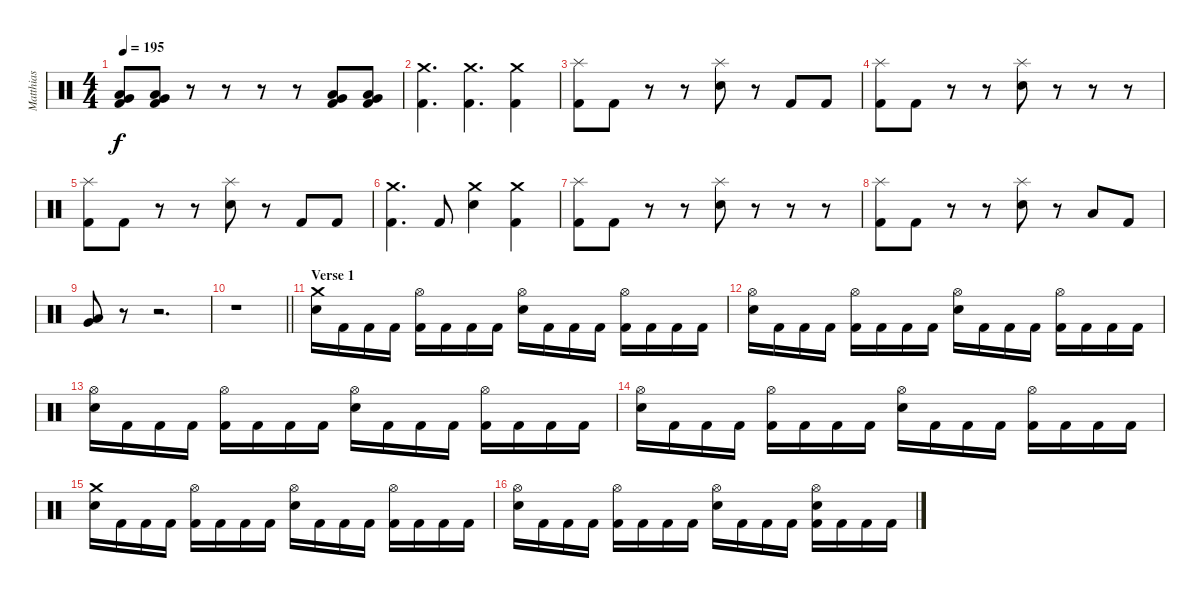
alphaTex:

\track ("Matthias" "Matthias") {instrument percussion}
\staff {score}
\articulation defaults
\ts (4 4)
\tempo 195
\clef neutral
\ks c
("Low Tom (hit)" "Very Low Tom (hit)" "Kick (hit) 2").8{dy f} ("Low Tom (hit)" "Very Low Tom (hit)" "Kick (hit) 2").8 r.8 r.8 r.8 r.8 ("Low Tom (hit)" "Very Low Tom (hit)" "Kick (hit) 2").8 ("Low Tom (hit)" "Very Low Tom (hit)" "Kick (hit) 2").8 |
("Crash medium (hit)" "Kick (hit) 2").4{d} ("Crash medium (hit)" "Kick (hit) 2").4{d} ("Crash medium (hit)" "Kick (hit) 2").4 |
("Splash (hit)" "Kick (hit) 2").8 "Kick (hit) 2".8 r.8 r.8 ("Splash (hit)" "Electric Snare (hit)").8 r.8 "Kick (hit) 2".8 "Kick (hit) 2".8 |
("Splash (hit)" "Kick (hit) 2").8 "Kick (hit) 2".8 r.8 r.8 ("Splash (hit)" "Electric Snare (hit)").8 r.8 r.8 r.8 |
("Splash (hit)" "Kick (hit) 2").8 "Kick (hit) 2".8 r.8 r.8 ("Splash (hit)" "Electric Snare (hit)").8 r.8 "Kick (hit) 2".8 "Kick (hit) 2".8 |
("Crash medium (hit)" "Kick (hit) 2").4{d} "Kick (hit) 2".8 ("Crash medium (hit)" "Electric Snare (hit)").4 ("Crash medium (hit)" "Kick (hit) 2").4 |
("Splash (hit)" "Kick (hit) 2").8 "Kick (hit) 2".8 r.8 r.8 ("Splash (hit)" "Electric Snare (hit)").8 r.8 r.8 r.8 |
("Splash (hit)" "Kick (hit) 2").8 "Kick (hit) 2".8 r.8 r.8 ("Splash (hit)" "Electric Snare (hit)").8 r.8 "Low Tom (hit)".8 "Kick (hit) 2".8 |
("Very Low Tom (hit)" "Low Tom (hit)").8 r.8 r.2{d} |
\barLineRight lightlight
r.1 |
\section ("" "Verse 1")
("Crash medium (hit)" "Electric Snare (hit)").16 "Kick (hit) 2".16 "Kick (hit) 2".16 "Kick (hit) 2".16 ("Hi-Hat (open)" "Kick (hit) 2").16 "Kick (hit) 2".16 "Kick (hit) 2".16 "Kick (hit) 2".16 ("Hi-Hat (open)" "Electric Snare (hit)").16 "Kick (hit) 2".16 "Kick (hit) 2".16 "Kick (hit) 2".16 ("Hi-Hat (open)" "Kick (hit) 2").16 "Kick (hit) 2".16 "Kick (hit) 2".16 "Kick (hit) 2".16 |
("Hi-Hat (open)" "Electric Snare (hit)").16 "Kick (hit) 2".16 "Kick (hit) 2".16 "Kick (hit) 2".16 ("Hi-Hat (open)" "Kick (hit) 2").16 "Kick (hit) 2".16 "Kick (hit) 2".16 "Kick (hit) 2".16 ("Hi-Hat (open)" "Electric Snare (hit)").16 "Kick (hit) 2".16 "Kick (hit) 2".16 "Kick (hit) 2".16 ("Hi-Hat (open)" "Kick (hit) 2").16 "Kick (hit) 2".16 "Kick (hit) 2".16 "Kick (hit) 2".16 |
("Hi-Hat (open)" "Electric Snare (hit)").16 "Kick (hit) 2".16 "Kick (hit) 2".16 "Kick (hit) 2".16 ("Hi-Hat (open)" "Kick (hit) 2").16 "Kick (hit) 2".16 "Kick (hit) 2".16 "Kick (hit) 2".16 ("Hi-Hat (open)" "Electric Snare (hit)").16 "Kick (hit) 2".16 "Kick (hit) 2".16 "Kick (hit) 2".16 ("Hi-Hat (open)" "Kick (hit) 2").16 "Kick (hit) 2".16 "Kick (hit) 2".16 "Kick (hit) 2".16 |
("Hi-Hat (open)" "Electric Snare (hit)").16 "Kick (hit) 2".16 "Kick (hit) 2".16 "Kick (hit) 2".16 ("Hi-Hat (open)" "Kick (hit) 2").16 "Kick (hit) 2".16 "Kick (hit) 2".16 "Kick (hit) 2".16 ("Hi-Hat (open)" "Electric Snare (hit)").16 "Kick (hit) 2".16 "Kick (hit) 2".16 "Kick (hit) 2".16 ("Hi-Hat (open)" "Kick (hit) 2").16 "Kick (hit) 2".16 "Kick (hit) 2".16 "Kick (hit) 2".16 |
("Crash medium (hit)" "Electric Snare (hit)").16 "Kick (hit) 2".16 "Kick (hit) 2".16 "Kick (hit) 2".16 ("Hi-Hat (open)" "Kick (hit) 2").16 "Kick (hit) 2".16 "Kick (hit) 2".16 "Kick (hit) 2".16 ("Hi-Hat (open)" "Electric Snare (hit)").16 "Kick (hit) 2".16 "Kick (hit) 2".16 "Kick (hit) 2".16 ("Hi-Hat (open)" "Kick (hit) 2").16 "Kick (hit) 2".16 "Kick (hit) 2".16 "Kick (hit) 2".16 |
("Hi-Hat (open)" "Electric Snare (hit)").16 "Kick (hit) 2".16 "Kick (hit) 2".16 "Kick (hit) 2".16 ("Hi-Hat (open)" "Kick (hit) 2").16 "Kick (hit) 2".16 "Kick (hit) 2".16 "Kick (hit) 2".16 ("Hi-Hat (open)" "Electric Snare (hit)").16 "Kick (hit) 2".16 "Kick (hit) 2".16 "Kick (hit) 2".16 ("Hi-Hat (open)" "Electric Snare (hit)" "Kick (hit) 2").16 "Kick (hit) 2".16 "Kick (hit) 2".16 "Kick (hit) 2".16
